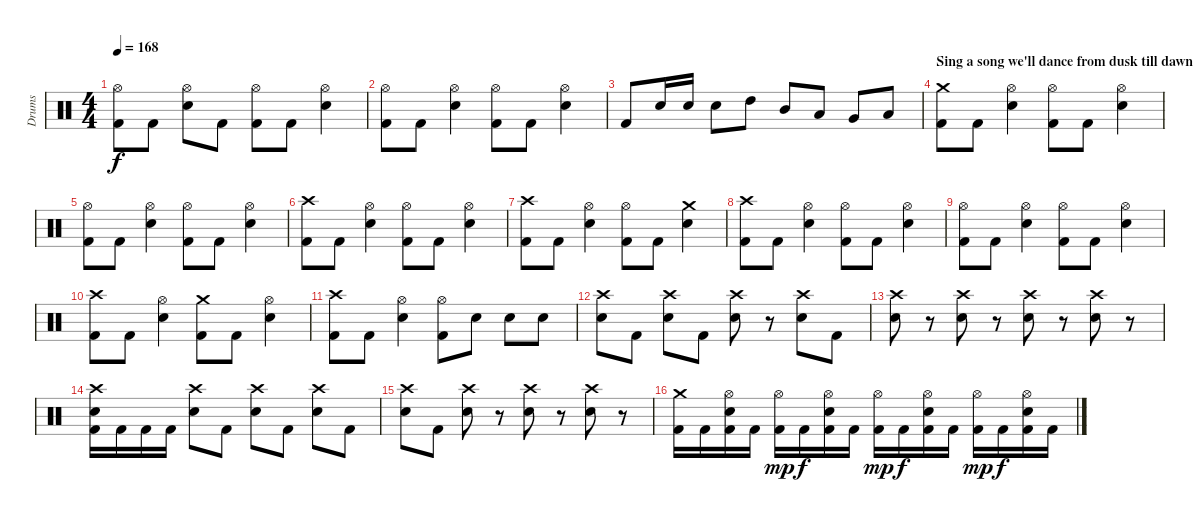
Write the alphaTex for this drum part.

\track ("Drums" "Drums") {instrument percussion}
\staff {score}
\articulation defaults
\ts (4 4)
\tempo 168
\clef neutral
\ks c
("Kick (hit) 2" "Hi-Hat (open)").8{dy f} "Kick (hit) 2".8 ("Electric Snare (hit)" "Hi-Hat (open)").8 "Kick (hit) 2".8 ("Kick (hit) 2" "Hi-Hat (open)").8 "Kick (hit) 2".8 ("Electric Snare (hit)" "Hi-Hat (open)").4 |
("Kick (hit) 2" "Hi-Hat (open)").8 "Kick (hit) 2".8 ("Electric Snare (hit)" "Hi-Hat (open)").4 ("Kick (hit) 2" "Hi-Hat (open)").8 "Kick (hit) 2".8 ("Electric Snare (hit)" "Hi-Hat (open)").4 |
"Kick (hit) 2".8 "Electric Snare (hit)".16 "Electric Snare (hit)".16 "Electric Snare (hit)".8 "High Tom (hit)".8 "Mid Tom (hit)".8 "Low Tom (hit)".8 "Very Low Tom (hit)".8 "Low Floor Tom (hit)".8 |
\section ("" "Sing a song we'll dance from dusk till dawn")
("Kick (hit) 2" "Crash medium (hit)").8 "Kick (hit) 2".8 ("Electric Snare (hit)" "Hi-Hat (open)").4 ("Kick (hit) 2" "Hi-Hat (open)").8 "Kick (hit) 2".8 ("Electric Snare (hit)" "Hi-Hat (open)").4 |
("Kick (hit) 2" "Hi-Hat (open)").8 "Kick (hit) 2".8 ("Electric Snare (hit)" "Hi-Hat (open)").4 ("Kick (hit) 2" "Hi-Hat (open)").8 "Kick (hit) 2".8 ("Electric Snare (hit)" "Hi-Hat (open)").4 |
("Kick (hit) 2" "Crash high (hit)").8 "Kick (hit) 2".8 ("Electric Snare (hit)" "Hi-Hat (open)").4 ("Kick (hit) 2" "Hi-Hat (open)").8 "Kick (hit) 2".8 ("Electric Snare (hit)" "Hi-Hat (open)").4 |
("Kick (hit) 2" "Crash high (hit)").8 "Kick (hit) 2".8 ("Electric Snare (hit)" "Hi-Hat (open)").4 ("Kick (hit) 2" "Hi-Hat (open)").8 "Kick (hit) 2".8 ("Electric Snare (hit)" "Crash medium (hit)").4 |
("Kick (hit) 2" "Crash high (hit)").8 "Kick (hit) 2".8 ("Electric Snare (hit)" "Hi-Hat (open)").4 ("Kick (hit) 2" "Hi-Hat (open)").8 "Kick (hit) 2".8 ("Electric Snare (hit)" "Hi-Hat (open)").4 |
("Kick (hit) 2" "Hi-Hat (open)").8 "Kick (hit) 2".8 ("Electric Snare (hit)" "Hi-Hat (open)").4 ("Kick (hit) 2" "Hi-Hat (open)").8 "Kick (hit) 2".8 ("Electric Snare (hit)" "Hi-Hat (open)").4 |
("Kick (hit) 2" "Crash high (hit)").8 "Kick (hit) 2".8 ("Electric Snare (hit)" "Hi-Hat (open)").4 ("Kick (hit) 2" "Crash medium (hit)").8 "Kick (hit) 2".8 ("Electric Snare (hit)" "Hi-Hat (open)").4 |
("Kick (hit) 2" "Crash high (hit)").8 "Kick (hit) 2".8 ("Electric Snare (hit)" "Hi-Hat (open)").4 ("Kick (hit) 2" "Hi-Hat (open)").8 "Electric Snare (hit)".8 "Electric Snare (hit)".8 "Electric Snare (hit)".8 |
("Electric Snare (hit)" "Crash high (hit)").8 "Kick (hit) 2".8 ("Electric Snare (hit)" "Crash high (hit)").8 "Kick (hit) 2".8 ("Electric Snare (hit)" "Crash high (hit)").8 r.8 ("Electric Snare (hit)" "Crash high (hit)").8 "Kick (hit) 2".8 |
("Electric Snare (hit)" "Crash high (hit)").8 r.8 ("Electric Snare (hit)" "Crash high (hit)").8 r.8 ("Electric Snare (hit)" "Crash high (hit)").8 r.8 ("Electric Snare (hit)" "Crash high (hit)").8 r.8 |
("Kick (hit) 2" "Electric Snare (hit)" "Crash high (hit)").16 "Kick (hit) 2".16 "Kick (hit) 2".16 "Kick (hit) 2".16 ("Electric Snare (hit)" "Crash high (hit)").8 "Kick (hit) 2".8 ("Electric Snare (hit)" "Crash high (hit)").8 "Kick (hit) 2".8 ("Electric Snare (hit)" "Crash high (hit)").8 "Kick (hit) 2".8 |
("Electric Snare (hit)" "Crash high (hit)").8 "Kick (hit) 2".8 ("Electric Snare (hit)" "Crash high (hit)").8 r.8 ("Electric Snare (hit)" "Crash high (hit)").8 r.8 ("Electric Snare (hit)" "Crash high (hit)").8 r.8 |
("Kick (hit) 2" "Crash medium (hit)").16 "Kick (hit) 2".16 ("Kick (hit) 2" "Electric Snare (hit)" "Hi-Hat (open)").16 "Kick (hit) 2".16 ("Kick (hit) 2" "Hi-Hat (open)").16{dy mp} "Kick (hit) 2".16{dy f} ("Kick (hit) 2" "Electric Snare (hit)" "Hi-Hat (open)").16 "Kick (hit) 2".16 ("Kick (hit) 2" "Hi-Hat (open)").16{dy mp} "Kick (hit) 2".16{dy f} ("Kick (hit) 2" "Electric Snare (hit)" "Hi-Hat (open)").16 "Kick (hit) 2".16 ("Kick (hit) 2" "Hi-Hat (open)").16{dy mp} "Kick (hit) 2".16{dy f} ("Kick (hit) 2" "Electric Snare (hit)" "Hi-Hat (open)").16 "Kick (hit) 2".16
